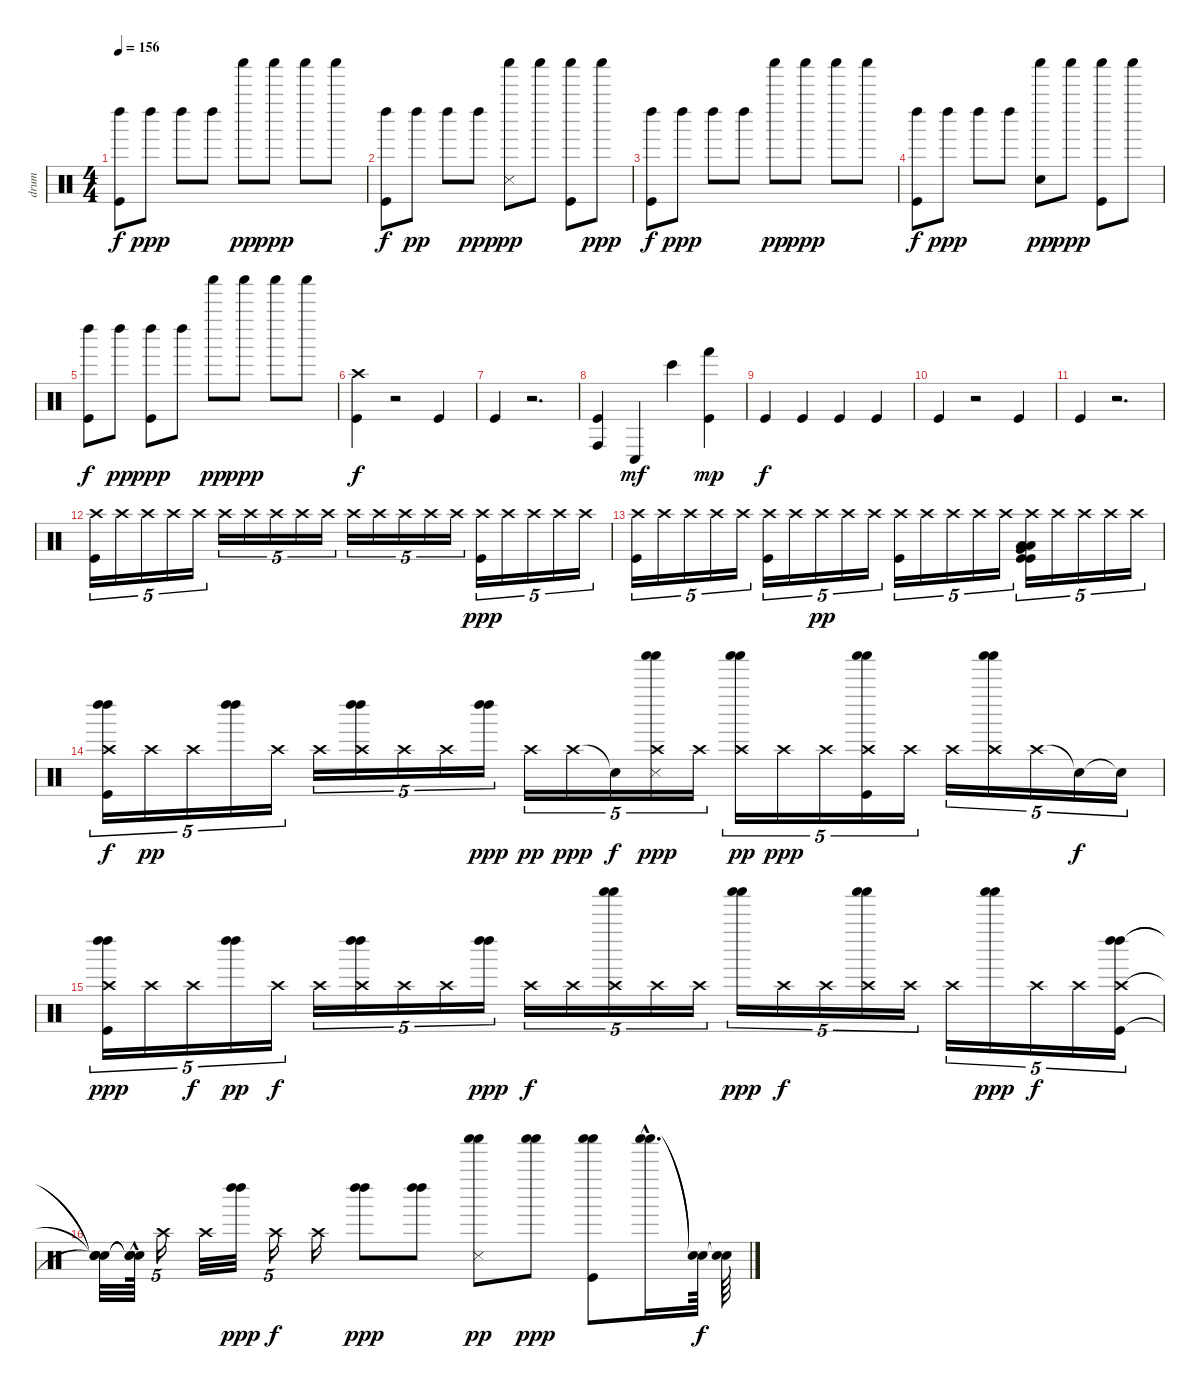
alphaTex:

\track ("drum" "drum") {instrument percussion}
\staff {score}
\articulation defaults
\ts (4 4)
\tempo 156
\clef neutral
\ks c
("Left Maraca (hit)" "Kick (hit)").8{dy f} "Left Maraca (hit)".8{dy ppp} "Left Maraca (hit)".8 "Left Maraca (hit)".8 "Shaker (hit)".8{dy pp} "Shaker (hit)".8{dy ppp} "Shaker (hit)".8 "Shaker (hit)".8 |
("Left Maraca (hit)" "Kick (hit)").8{dy f} "Left Maraca (hit)".8{dy pp} "Left Maraca (hit)".8 "Left Maraca (hit)".8{dy ppp} ("Snare (side stick) 3" "Shaker (hit)").8{dy pp} "Shaker (hit)".8 ("Kick (hit)" "Shaker (hit)").8 "Shaker (hit)".8{dy ppp} |
("Left Maraca (hit)" "Kick (hit)").8{dy f} "Left Maraca (hit)".8{dy ppp} "Left Maraca (hit)".8 "Left Maraca (hit)".8 "Shaker (hit)".8{dy pp} "Shaker (hit)".8{dy ppp} "Shaker (hit)".8 "Shaker (hit)".8 |
("Left Maraca (hit)" "Kick (hit)").8{dy f} "Left Maraca (hit)".8{dy ppp} "Left Maraca (hit)".8 "Left Maraca (hit)".8 ("Shaker (hit)" "Snare (hit) 2").8{dy pp} "Shaker (hit)".8{dy ppp} ("Shaker (hit)" "Kick (hit)").8 "Shaker (hit)".8 |
("Left Maraca (hit)" "Kick (hit)").8{dy f} "Left Maraca (hit)".8{dy pp} ("Kick (hit)" "Left Maraca (hit)").8{dy ppp} "Left Maraca (hit)".8 "Shaker (hit)".8{dy pp} "Shaker (hit)".8{dy ppp} "Shaker (hit)".8 "Shaker (hit)".8 |
("Kick (hit)" "Crash high (hit)").4{dy f} r.2 "Kick (hit)".4 |
"Kick (hit)".4 r.2{d} |
("Conga high (hit)" "Kick (hit)").4 "Conga low (hit)".4{dy mf} "Bongo High (hit)".4 ("Kick (hit)" "Hand (hit)").4{dy mp} |
"Kick (hit)".4{dy f} "Kick (hit)".4 "Kick (hit)".4 "Kick (hit)".4 |
"Kick (hit)".4 r.2 "Kick (hit)".4 |
"Kick (hit)".4 r.2{d} |
("Kick (hit)" "Crash high (hit)").16{tu (5 4)} "Crash high (hit)".16{tu (5 4)} "Crash high (hit)".16{tu (5 4)} "Crash high (hit)".16{tu (5 4)} "Crash high (hit)".16{tu (5 4)} "Crash high (hit)".16{tu (5 4)} "Crash high (hit)".16{tu (5 4)} "Crash high (hit)".16{tu (5 4)} "Crash high (hit)".16{tu (5 4)} "Crash high (hit)".16{tu (5 4)} "Crash high (hit)".16{tu (5 4)} "Crash high (hit)".16{tu (5 4)} "Crash high (hit)".16{tu (5 4)} "Crash high (hit)".16{tu (5 4)} "Crash high (hit)".16{tu (5 4)} ("Kick (hit)" "Crash high (hit)").16{tu (5 4) dy ppp} "Crash high (hit)".16{tu (5 4)} "Crash high (hit)".16{tu (5 4)} "Crash high (hit)".16{tu (5 4)} "Crash high (hit)".16{tu (5 4)} |
("Kick (hit)" "Crash high (hit)").16{tu (5 4)} "Crash high (hit)".16{tu (5 4)} "Crash high (hit)".16{tu (5 4)} "Crash high (hit)".16{tu (5 4)} "Crash high (hit)".16{tu (5 4)} ("Kick (hit)" "Crash high (hit)").16{tu (5 4)} "Crash high (hit)".16{tu (5 4)} "Crash high (hit)".16{tu (5 4) dy pp} "Crash high (hit)".16{tu (5 4)} "Crash high (hit)".16{tu (5 4)} ("Kick (hit)" "Crash high (hit)").16{tu (5 4)} "Crash high (hit)".16{tu (5 4)} "Crash high (hit)".16{tu (5 4)} "Crash high (hit)".16{tu (5 4)} "Crash high (hit)".16{tu (5 4)} ("Very Low Tom (hit)" "Low Tom (hit)" "Crash high (hit)" "Kick (hit)" "Kick (hit)" "Low Floor Tom (hit)").16{tu (5 4)} "Crash high (hit)".16{tu (5 4)} "Crash high (hit)".16{tu (5 4)} "Crash high (hit)".16{tu (5 4)} "Crash high (hit)".16{tu (5 4)} |
("Left Maraca (hit)" "Left Maraca (hit)" "Kick (hit)" "Crash high (hit)").16{tu (5 4) dy f} "Crash high (hit)".16{tu (5 4) dy pp} "Crash high (hit)".16{tu (5 4)} ("Left Maraca (hit)" "Left Maraca (hit)").16{tu (5 4)} "Crash high (hit)".16{tu (5 4)} "Crash high (hit)".16{tu (5 4)} ("Left Maraca (hit)" "Left Maraca (hit)" "Crash high (hit)").16{tu (5 4)} "Crash high (hit)".16{tu (5 4)} "Crash high (hit)".16{tu (5 4)} ("Left Maraca (hit)" "Left Maraca (hit)").16{tu (5 4) dy ppp} "Crash high (hit)".16{tu (5 4) dy pp} "Crash high (hit)".16{tu (5 4) dy ppp} "Snare (hit)"{t}.16{tu (5 4) dy f} ("Snare (side stick) 3" "Shaker (hit)" "Shaker (hit)" "Crash high (hit)").16{tu (5 4) dy ppp} "Crash high (hit)".16{tu (5 4)} ("Crash high (hit)" "Shaker (hit)" "Shaker (hit)").16{tu (5 4) dy pp} "Crash high (hit)".16{tu (5 4) dy ppp} "Crash high (hit)".16{tu (5 4)} ("Shaker (hit)" "Kick (hit)" "Shaker (hit)" "Crash high (hit)").16{tu (5 4)} "Crash high (hit)".16{tu (5 4)} "Crash high (hit)".16{tu (5 4)} ("Shaker (hit)" "Shaker (hit)" "Crash high (hit)").16{tu (5 4)} "Crash high (hit)".16{tu (5 4)} "Snare (hit)"{t}.16{tu (5 4) dy f} "Snare (hit)"{t}.16{tu (5 4)} |
("Kick (hit)" "Left Maraca (hit)" "Left Maraca (hit)" "Crash high (hit)").16{tu (5 4) dy ppp} "Crash high (hit)".16{tu (5 4)} "Crash high (hit)".16{tu (5 4) dy f} ("Left Maraca (hit)" "Left Maraca (hit)").16{tu (5 4) dy pp} "Crash high (hit)".16{tu (5 4) dy f} "Crash high (hit)".16{tu (5 4)} ("Left Maraca (hit)" "Left Maraca (hit)" "Crash high (hit)").16{tu (5 4)} "Crash high (hit)".16{tu (5 4)} "Crash high (hit)".16{tu (5 4)} ("Left Maraca (hit)" "Left Maraca (hit)").16{tu (5 4) dy ppp} "Crash high (hit)".16{tu (5 4) dy f} "Crash high (hit)".16{tu (5 4)} ("Shaker (hit)" "Shaker (hit)" "Crash high (hit)").16{tu (5 4)} "Crash high (hit)".16{tu (5 4)} "Crash high (hit)".16{tu (5 4)} ("Shaker (hit)" "Shaker (hit)").16{tu (5 4) dy ppp} "Crash high (hit)".16{tu (5 4) dy f} "Crash high (hit)".16{tu (5 4)} ("Shaker (hit)" "Shaker (hit)" "Crash high (hit)").16{tu (5 4)} "Crash high (hit)".16{tu (5 4)} "Crash high (hit)".16{tu (5 4)} ("Shaker (hit)" "Shaker (hit)").16{tu (5 4) dy ppp} "Crash high (hit)".16{tu (5 4) dy f} "Crash high (hit)".16{tu (5 4)} ("Kick (hit)" "Left Maraca (hit)" "Left Maraca (hit)" "Crash high (hit)").16{tu (5 4)} |
("Snare (hit)"{t} "Snare (hit)"{t} "Snare (hit)"{t} "Snare (hit)"{t}).32 ("Snare (hit)"{hac t} "Snare (hit)"{t} "Snare (hit)"{t} "Snare (hit)"{t}).64 "Crash high (hit)".16{tu (5 4)} "Crash high (hit)".32 ("Left Maraca (hit)" "Left Maraca (hit)").32{dy ppp} "Crash high (hit)".16{tu (5 4) dy f} "Crash high (hit)".16 ("Left Maraca (hit)" "Left Maraca (hit)").8{dy ppp} ("Left Maraca (hit)" "Left Maraca (hit)").8 ("Snare (side stick) 3" "Shaker (hit)" "Shaker (hit)").8{dy pp} ("Shaker (hit)" "Shaker (hit)").8{dy ppp} ("Kick (hit)" "Shaker (hit)" "Shaker (hit)").8 ("Shaker (hit)"{hac} "Shaker (hit)"{hac}).16{d} ("Snare (hit)"{t} "Snare (hit)"{t}).64{dy f} ("Snare (hit)"{t} "Snare (hit)"{t}).64
